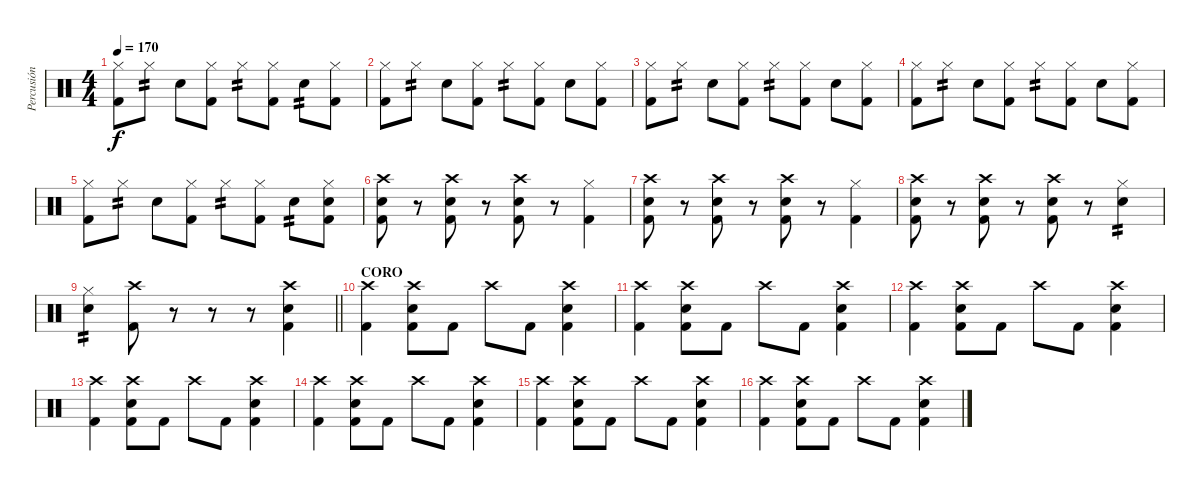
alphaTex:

\track ("Percusión" "Percusión") {instrument percussion}
\staff {score}
\articulation defaults
\ts (4 4)
\tempo 170
\clef neutral
\ks c
("Hi-Hat (closed)" "Kick (hit) 2").8{dy f} "Hi-Hat (closed)".8{tp 2} "Electric Snare (hit)".8 ("Hi-Hat (closed)" "Kick (hit) 2").8 "Hi-Hat (closed)".8{tp 2} ("Hi-Hat (closed)" "Kick (hit) 2").8 "Electric Snare (hit)".8{tp 2} ("Hi-Hat (closed)" "Kick (hit) 2").8 |
("Hi-Hat (closed)" "Kick (hit) 2").8 "Hi-Hat (closed)".8{tp 2} "Electric Snare (hit)".8 ("Hi-Hat (closed)" "Kick (hit) 2").8 "Hi-Hat (closed)".8{tp 2} ("Hi-Hat (closed)" "Kick (hit) 2").8 "Electric Snare (hit)".8 ("Hi-Hat (closed)" "Kick (hit) 2").8 |
("Hi-Hat (closed)" "Kick (hit) 2").8 "Hi-Hat (closed)".8{tp 2} "Electric Snare (hit)".8 ("Hi-Hat (closed)" "Kick (hit) 2").8 "Hi-Hat (closed)".8{tp 2} ("Hi-Hat (closed)" "Kick (hit) 2").8 "Electric Snare (hit)".8 ("Hi-Hat (closed)" "Kick (hit) 2").8 |
("Hi-Hat (closed)" "Kick (hit) 2").8 "Hi-Hat (closed)".8{tp 2} "Electric Snare (hit)".8 ("Hi-Hat (closed)" "Kick (hit) 2").8 "Hi-Hat (closed)".8{tp 2} ("Hi-Hat (closed)" "Kick (hit) 2").8 "Electric Snare (hit)".8 ("Hi-Hat (closed)" "Kick (hit) 2").8 |
("Hi-Hat (closed)" "Kick (hit) 2").8 "Hi-Hat (closed)".8{tp 2} "Electric Snare (hit)".8 ("Hi-Hat (closed)" "Kick (hit) 2").8 "Hi-Hat (closed)".8{tp 2} ("Hi-Hat (closed)" "Kick (hit) 2").8 "Electric Snare (hit)".8{tp 2} ("Hi-Hat (closed)" "Electric Snare (hit)" "Kick (hit) 2").8 |
("Crash high (hit)" "Electric Snare (hit)" "Kick (hit) 2").8 r.8 ("Crash high (hit)" "Electric Snare (hit)" "Kick (hit) 2").8 r.8 ("Crash high (hit)" "Electric Snare (hit)" "Kick (hit) 2").8 r.8 ("Hi-Hat (closed)" "Kick (hit) 2").4 |
("Crash high (hit)" "Electric Snare (hit)" "Kick (hit) 2").8 r.8 ("Crash high (hit)" "Electric Snare (hit)" "Kick (hit) 2").8 r.8 ("Crash high (hit)" "Electric Snare (hit)" "Kick (hit) 2").8 r.8 ("Hi-Hat (closed)" "Kick (hit) 2").4 |
("Crash high (hit)" "Electric Snare (hit)" "Kick (hit) 2").8 r.8 ("Crash high (hit)" "Electric Snare (hit)" "Kick (hit) 2").8 r.8 ("Crash high (hit)" "Electric Snare (hit)" "Kick (hit) 2").8 r.8 ("Hi-Hat (closed)" "Electric Snare (hit)").4{tp 2} |
\barLineRight lightlight
("Hi-Hat (closed)" "Electric Snare (hit)").4{tp 2} ("Crash high (hit)" "Kick (hit) 2").8 r.8 r.8 r.8 ("Crash high (hit)" "Electric Snare (hit)" "Kick (hit) 2").4 |
\section ("" "CORO")
("Crash high (hit)" "Kick (hit) 2").4 ("Crash high (hit)" "Electric Snare (hit)" "Kick (hit) 2").8 "Kick (hit) 2".8 "Crash high (hit)".8 "Kick (hit) 2".8 ("Crash high (hit)" "Electric Snare (hit)" "Kick (hit) 2").4 |
("Crash high (hit)" "Kick (hit) 2").4 ("Crash high (hit)" "Electric Snare (hit)" "Kick (hit) 2").8 "Kick (hit) 2".8 "Crash high (hit)".8 "Kick (hit) 2".8 ("Crash high (hit)" "Electric Snare (hit)" "Kick (hit) 2").4 |
("Crash high (hit)" "Kick (hit) 2").4 ("Crash high (hit)" "Electric Snare (hit)" "Kick (hit) 2").8 "Kick (hit) 2".8 "Crash high (hit)".8 "Kick (hit) 2".8 ("Crash high (hit)" "Electric Snare (hit)" "Kick (hit) 2").4 |
("Crash high (hit)" "Kick (hit) 2").4 ("Crash high (hit)" "Electric Snare (hit)" "Kick (hit) 2").8 "Kick (hit) 2".8 "Crash high (hit)".8 "Kick (hit) 2".8 ("Crash high (hit)" "Electric Snare (hit)" "Kick (hit) 2").4 |
("Crash high (hit)" "Kick (hit) 2").4 ("Crash high (hit)" "Electric Snare (hit)" "Kick (hit) 2").8 "Kick (hit) 2".8 "Crash high (hit)".8 "Kick (hit) 2".8 ("Crash high (hit)" "Electric Snare (hit)" "Kick (hit) 2").4 |
("Crash high (hit)" "Kick (hit) 2").4 ("Crash high (hit)" "Electric Snare (hit)" "Kick (hit) 2").8 "Kick (hit) 2".8 "Crash high (hit)".8 "Kick (hit) 2".8 ("Crash high (hit)" "Electric Snare (hit)" "Kick (hit) 2").4 |
("Crash high (hit)" "Kick (hit) 2").4 ("Crash high (hit)" "Electric Snare (hit)" "Kick (hit) 2").8 "Kick (hit) 2".8 "Crash high (hit)".8 "Kick (hit) 2".8 ("Crash high (hit)" "Electric Snare (hit)" "Kick (hit) 2").4
